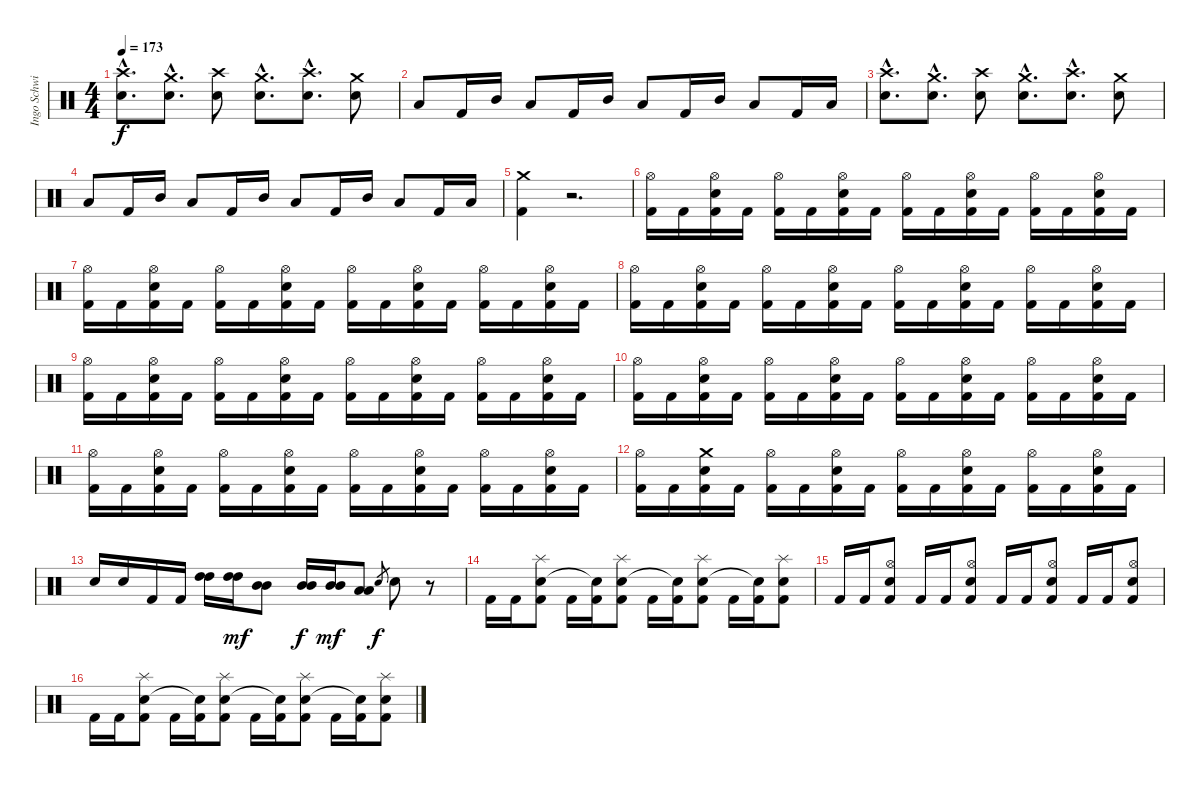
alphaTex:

\track ("Ingo Schwichtenberg" "Ingo Schwi") {instrument percussion}
\staff {score}
\articulation defaults
\ts (4 4)
\tempo 173
\clef neutral
\ks c
("Crash high (hit)"{hac} "Electric Snare (hit)"{hac}).8{d dy f} ("Crash medium (hit)"{hac} "Electric Snare (hit)"{hac}).8{d} ("Crash high (hit)" "Electric Snare (hit)").8 ("Crash medium (hit)"{hac} "Electric Snare (hit)"{hac}).8{d} ("Crash high (hit)"{hac} "Electric Snare (hit)"{hac}).8{d} ("Crash medium (hit)" "Electric Snare (hit)").8 |
"Low Tom (hit)".8 "Kick (hit) 2".16 "Mid Tom (hit)".16 "Low Tom (hit)".8 "Kick (hit) 2".16 "Mid Tom (hit)".16 "Low Tom (hit)".8 "Kick (hit) 2".16 "Mid Tom (hit)".16 "Low Tom (hit)".8 "Kick (hit) 2".16 "Low Tom (hit)".16 |
("Crash high (hit)"{hac} "Electric Snare (hit)"{hac}).8{d} ("Crash medium (hit)"{hac} "Electric Snare (hit)"{hac}).8{d} ("Crash high (hit)" "Electric Snare (hit)").8 ("Crash medium (hit)"{hac} "Electric Snare (hit)"{hac}).8{d} ("Crash high (hit)"{hac} "Electric Snare (hit)"{hac}).8{d} ("Crash medium (hit)" "Electric Snare (hit)").8 |
"Low Tom (hit)".8 "Kick (hit) 2".16 "Mid Tom (hit)".16 "Low Tom (hit)".8 "Kick (hit) 2".16 "Mid Tom (hit)".16 "Low Tom (hit)".8 "Kick (hit) 2".16 "Mid Tom (hit)".16 "Low Tom (hit)".8 "Kick (hit) 2".16 "Low Tom (hit)".16 |
("Crash medium (hit)" "Kick (hit) 2").4 r.2{d} |
("Hi-Hat (open)" "Kick (hit) 2").16 "Kick (hit) 2".16 ("Hi-Hat (open)" "Electric Snare (hit)" "Kick (hit) 2").16 "Kick (hit) 2".16 ("Hi-Hat (open)" "Kick (hit) 2").16 "Kick (hit) 2".16 ("Hi-Hat (open)" "Electric Snare (hit)" "Kick (hit) 2").16 "Kick (hit) 2".16 ("Hi-Hat (open)" "Kick (hit) 2").16 "Kick (hit) 2".16 ("Hi-Hat (open)" "Electric Snare (hit)" "Kick (hit) 2").16 "Kick (hit) 2".16 ("Hi-Hat (open)" "Kick (hit) 2").16 "Kick (hit) 2".16 ("Hi-Hat (open)" "Electric Snare (hit)" "Kick (hit) 2").16 "Kick (hit) 2".16 |
("Hi-Hat (open)" "Kick (hit) 2").16 "Kick (hit) 2".16 ("Hi-Hat (open)" "Electric Snare (hit)" "Kick (hit) 2").16 "Kick (hit) 2".16 ("Hi-Hat (open)" "Kick (hit) 2").16 "Kick (hit) 2".16 ("Hi-Hat (open)" "Electric Snare (hit)" "Kick (hit) 2").16 "Kick (hit) 2".16 ("Hi-Hat (open)" "Kick (hit) 2").16 "Kick (hit) 2".16 ("Hi-Hat (open)" "Electric Snare (hit)" "Kick (hit) 2").16 "Kick (hit) 2".16 ("Hi-Hat (open)" "Kick (hit) 2").16 "Kick (hit) 2".16 ("Hi-Hat (open)" "Electric Snare (hit)" "Kick (hit) 2").16 "Kick (hit) 2".16 |
("Hi-Hat (open)" "Kick (hit) 2").16 "Kick (hit) 2".16 ("Hi-Hat (open)" "Electric Snare (hit)" "Kick (hit) 2").16 "Kick (hit) 2".16 ("Hi-Hat (open)" "Kick (hit) 2").16 "Kick (hit) 2".16 ("Hi-Hat (open)" "Electric Snare (hit)" "Kick (hit) 2").16 "Kick (hit) 2".16 ("Hi-Hat (open)" "Kick (hit) 2").16 "Kick (hit) 2".16 ("Hi-Hat (open)" "Electric Snare (hit)" "Kick (hit) 2").16 "Kick (hit) 2".16 ("Hi-Hat (open)" "Kick (hit) 2").16 "Kick (hit) 2".16 ("Hi-Hat (open)" "Electric Snare (hit)" "Kick (hit) 2").16 "Kick (hit) 2".16 |
("Hi-Hat (open)" "Kick (hit) 2").16 "Kick (hit) 2".16 ("Hi-Hat (open)" "Electric Snare (hit)" "Kick (hit) 2").16 "Kick (hit) 2".16 ("Hi-Hat (open)" "Kick (hit) 2").16 "Kick (hit) 2".16 ("Hi-Hat (open)" "Electric Snare (hit)" "Kick (hit) 2").16 "Kick (hit) 2".16 ("Hi-Hat (open)" "Kick (hit) 2").16 "Kick (hit) 2".16 ("Hi-Hat (open)" "Electric Snare (hit)" "Kick (hit) 2").16 "Kick (hit) 2".16 ("Hi-Hat (open)" "Kick (hit) 2").16 "Kick (hit) 2".16 ("Hi-Hat (open)" "Electric Snare (hit)" "Kick (hit) 2").16 "Kick (hit) 2".16 |
("Hi-Hat (open)" "Kick (hit) 2").16 "Kick (hit) 2".16 ("Hi-Hat (open)" "Electric Snare (hit)" "Kick (hit) 2").16 "Kick (hit) 2".16 ("Hi-Hat (open)" "Kick (hit) 2").16 "Kick (hit) 2".16 ("Hi-Hat (open)" "Electric Snare (hit)" "Kick (hit) 2").16 "Kick (hit) 2".16 ("Hi-Hat (open)" "Kick (hit) 2").16 "Kick (hit) 2".16 ("Hi-Hat (open)" "Electric Snare (hit)" "Kick (hit) 2").16 "Kick (hit) 2".16 ("Hi-Hat (open)" "Kick (hit) 2").16 "Kick (hit) 2".16 ("Hi-Hat (open)" "Electric Snare (hit)" "Kick (hit) 2").16 "Kick (hit) 2".16 |
("Hi-Hat (open)" "Kick (hit) 2").16 "Kick (hit) 2".16 ("Hi-Hat (open)" "Electric Snare (hit)" "Kick (hit) 2").16 "Kick (hit) 2".16 ("Hi-Hat (open)" "Kick (hit) 2").16 "Kick (hit) 2".16 ("Hi-Hat (open)" "Electric Snare (hit)" "Kick (hit) 2").16 "Kick (hit) 2".16 ("Hi-Hat (open)" "Kick (hit) 2").16 "Kick (hit) 2".16 ("Hi-Hat (open)" "Electric Snare (hit)" "Kick (hit) 2").16 "Kick (hit) 2".16 ("Hi-Hat (open)" "Kick (hit) 2").16 "Kick (hit) 2".16 ("Hi-Hat (open)" "Electric Snare (hit)" "Kick (hit) 2").16 "Kick (hit) 2".16 |
("Hi-Hat (open)" "Kick (hit) 2").16 "Kick (hit) 2".16 ("Crash medium (hit)" "Electric Snare (hit)" "Kick (hit) 2").16 "Kick (hit) 2".16 ("Hi-Hat (open)" "Kick (hit) 2").16 "Kick (hit) 2".16 ("Hi-Hat (open)" "Electric Snare (hit)" "Kick (hit) 2").16 "Kick (hit) 2".16 ("Hi-Hat (open)" "Kick (hit) 2").16 "Kick (hit) 2".16 ("Hi-Hat (open)" "Electric Snare (hit)" "Kick (hit) 2").16 "Kick (hit) 2".16 ("Hi-Hat (open)" "Kick (hit) 2").16 "Kick (hit) 2".16 ("Hi-Hat (open)" "Electric Snare (hit)" "Kick (hit) 2").16 "Kick (hit) 2".16 |
"Snare (hit) 2".16 "Snare (hit) 2".16 "Kick (hit) 2".16 "Kick (hit) 2".16 ("High Tom (hit)" "High Tom (hit)").16 ("High Tom (hit)" "High Tom (hit)").16{dy mf} ("Mid Tom (hit)" "Mid Tom (hit)").8 ("Mid Tom (hit)" "Mid Tom (hit)").16{dy f} ("Mid Tom (hit)" "Mid Tom (hit)").16{dy mf} ("Low Tom (hit)" "Low Tom (hit)").8 "Snare (hit) 2".8{gr dy f} "Snare (hit) 2".8 r.8 |
"Kick (hit) 2".16 "Kick (hit) 2".16 ("Kick (hit) 2" "Snare (hit) 2" "Splash (hit)").8 "Kick (hit) 2".16 ("Kick (hit) 2" "Snare (hit)"{t}).16 ("Kick (hit) 2" "Snare (hit) 2" "Splash (hit)").8 "Kick (hit) 2".16 ("Kick (hit) 2" "Snare (hit)"{t}).16 ("Kick (hit) 2" "Snare (hit) 2" "Splash (hit)").8 "Kick (hit) 2".16 ("Kick (hit) 2" "Snare (hit)"{t}).16 ("Kick (hit) 2" "Snare (hit) 2" "Splash (hit)").8 |
"Kick (hit) 2".16 "Kick (hit) 2".16 ("Kick (hit) 2" "Snare (hit) 2" "Hi-Hat (open)").8 "Kick (hit) 2".16 "Kick (hit) 2".16 ("Kick (hit) 2" "Snare (hit) 2" "Hi-Hat (open)").8 "Kick (hit) 2".16 "Kick (hit) 2".16 ("Kick (hit) 2" "Snare (hit) 2" "Hi-Hat (open)").8 "Kick (hit) 2".16 "Kick (hit) 2".16 ("Kick (hit) 2" "Snare (hit) 2" "Hi-Hat (open)").8 |
"Kick (hit) 2".16 "Kick (hit) 2".16 ("Kick (hit) 2" "Snare (hit) 2" "Splash (hit)").8 "Kick (hit) 2".16 ("Kick (hit) 2" "Snare (hit)"{t}).16 ("Kick (hit) 2" "Snare (hit) 2" "Splash (hit)").8 "Kick (hit) 2".16 ("Kick (hit) 2" "Snare (hit)"{t}).16 ("Kick (hit) 2" "Snare (hit) 2" "Splash (hit)").8 "Kick (hit) 2".16 ("Kick (hit) 2" "Snare (hit)"{t}).16 ("Kick (hit) 2" "Snare (hit) 2" "Splash (hit)").8
